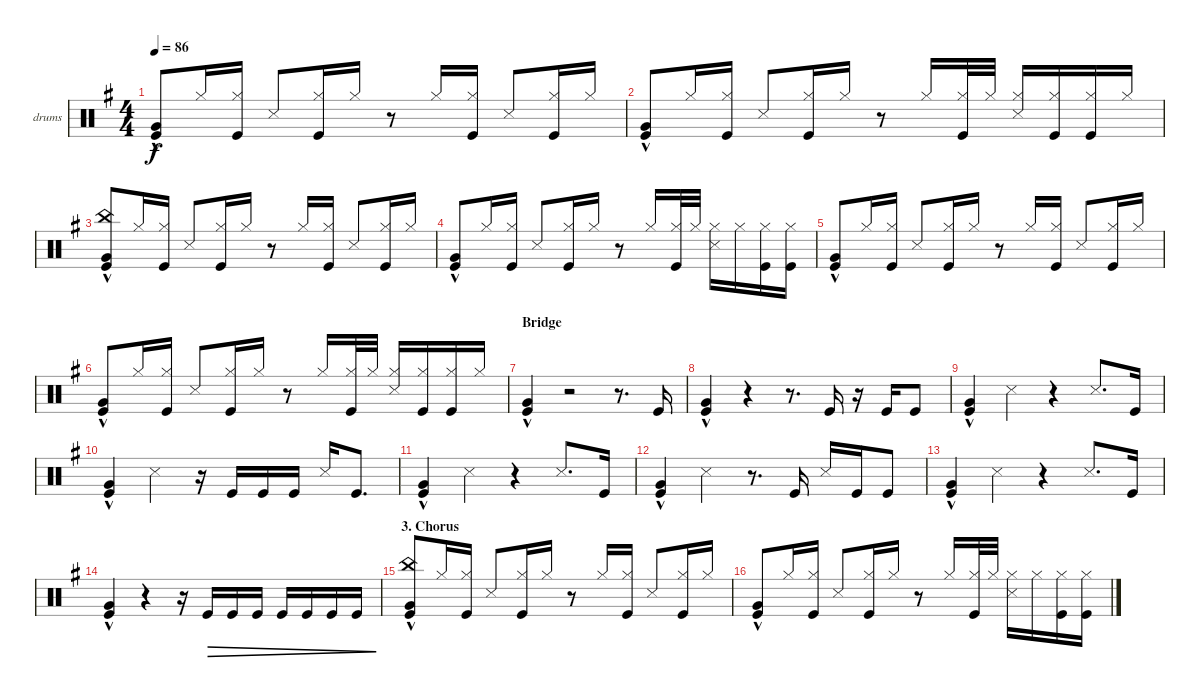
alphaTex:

\defaultSystemsLayout 4
\bracketExtendMode groupsimilarinstruments
\firstSystemTrackNameOrientation horizontal
\otherSystemsTrackNameOrientation horizontal
\track ("drums" "drums") {instrument percussion}
\staff {score}
\articulation defaults
\ts (4 4)
\tempo 86
\clef neutral
\ks g
("Kick (hit)" "Very Low Tom (hit)"{hac}).8{dy f} "Hi-Hat (closed)".16 ("Kick (hit)" "Hi-Hat (closed)").16 "Snare (side stick) 3".8{beam invert} ("Kick (hit)" "Hi-Hat (closed)").16 "Hi-Hat (closed)".16 r.8{beam invert} "Hi-Hat (closed)".16 ("Kick (hit)" "Hi-Hat (closed)").16 "Snare (side stick) 3".8{beam invert} ("Kick (hit)" "Hi-Hat (closed)").16 "Hi-Hat (closed)".16 |
("Kick (hit)" "Very Low Tom (hit)"{hac}).8 "Hi-Hat (closed)".16 ("Kick (hit)" "Hi-Hat (closed)").16 "Snare (side stick) 3".8{beam invert} ("Kick (hit)" "Hi-Hat (closed)").16 "Hi-Hat (closed)".16 r.8 "Hi-Hat (closed)".16{beam invert} ("Kick (hit)" "Hi-Hat (closed)").32 "Hi-Hat (closed)".32 ("Snare (side stick) 3" "Hi-Hat (closed)").16{beam invert} ("Kick (hit)" "Hi-Hat (closed)").16 ("Kick (hit)" "Hi-Hat (closed)").16 "Hi-Hat (closed)".16 |
("Kick (hit)" "Very Low Tom (hit)"{hac} "China (hit)").8 "Hi-Hat (closed)".16 ("Kick (hit)" "Hi-Hat (closed)").16 "Snare (side stick) 3".8{beam invert} ("Kick (hit)" "Hi-Hat (closed)").16 "Hi-Hat (closed)".16 r.8{beam invert} "Hi-Hat (closed)".16 ("Kick (hit)" "Hi-Hat (closed)").16 "Snare (side stick) 3".8{beam invert} ("Kick (hit)" "Hi-Hat (closed)").16 "Hi-Hat (closed)".16 |
("Kick (hit)" "Very Low Tom (hit)"{hac}).8 "Hi-Hat (closed)".16 ("Kick (hit)" "Hi-Hat (closed)").16 "Snare (side stick) 3".8{beam invert} ("Kick (hit)" "Hi-Hat (closed)").16 "Hi-Hat (closed)".16 r.8 "Hi-Hat (closed)".16{beam invert} ("Kick (hit)" "Hi-Hat (closed)").32 "Hi-Hat (closed)".32 ("Snare (side stick) 3" "Hi-Hat (closed)").16 "Hi-Hat (closed)".16 ("Kick (hit)" "Hi-Hat (closed)").16 ("Kick (hit)" "Hi-Hat (closed)").16 |
("Kick (hit)" "Very Low Tom (hit)"{hac}).8 "Hi-Hat (closed)".16 ("Kick (hit)" "Hi-Hat (closed)").16 "Snare (side stick) 3".8{beam invert} ("Kick (hit)" "Hi-Hat (closed)").16 "Hi-Hat (closed)".16 r.8{beam invert} "Hi-Hat (closed)".16 ("Kick (hit)" "Hi-Hat (closed)").16 "Snare (side stick) 3".8{beam invert} ("Kick (hit)" "Hi-Hat (closed)").16 "Hi-Hat (closed)".16 |
("Kick (hit)" "Very Low Tom (hit)"{hac}).8 "Hi-Hat (closed)".16 ("Kick (hit)" "Hi-Hat (closed)").16 "Snare (side stick) 3".8{beam invert} ("Kick (hit)" "Hi-Hat (closed)").16 "Hi-Hat (closed)".16 r.8 "Hi-Hat (closed)".16{beam invert} ("Kick (hit)" "Hi-Hat (closed)").32 "Hi-Hat (closed)".32 ("Snare (side stick) 3" "Hi-Hat (closed)").16{beam invert} ("Kick (hit)" "Hi-Hat (closed)").16 ("Kick (hit)" "Hi-Hat (closed)").16 "Hi-Hat (closed)".16 |
\section ("" "Bridge")
("Kick (hit)" "Very Low Tom (hit)"{hac}).4 r.2 r.8{d} "Kick (hit)".16 |
("Kick (hit)" "Very Low Tom (hit)"{hac}).4 r.4 r.8{d} "Kick (hit)".16 r.16 "Kick (hit)".16 "Kick (hit)".8 |
("Kick (hit)" "Very Low Tom (hit)"{hac}).4 "Snare (side stick) 3".4 r.4 "Snare (side stick) 3".8{d} "Kick (hit)".16 |
("Kick (hit)" "Very Low Tom (hit)"{hac}).4 "Snare (side stick) 3".4 r.16 "Kick (hit)".16 "Kick (hit)".16 "Kick (hit)".16 "Snare (side stick) 3".16 "Kick (hit)".8{d} |
("Kick (hit)" "Very Low Tom (hit)"{hac}).4 "Snare (side stick) 3".4 r.4 "Snare (side stick) 3".8{d} "Kick (hit)".16 |
("Kick (hit)" "Very Low Tom (hit)"{hac}).4 "Snare (side stick) 3".4 r.8{d} "Kick (hit)".16 "Snare (side stick) 3".16 "Kick (hit)".16 "Kick (hit)".8 |
("Kick (hit)" "Very Low Tom (hit)"{hac}).4 "Snare (side stick) 3".4 r.4 "Snare (side stick) 3".8{d} "Kick (hit)".16 |
("Kick (hit)" "Very Low Tom (hit)"{hac}).4 r.4 r.16 "Kick (hit)".16{dec} "Kick (hit)".16{dec} "Kick (hit)".16{dec} "Kick (hit)".16{dec} "Kick (hit)".16{dec} "Kick (hit)".16{dec} "Kick (hit)".16{dec} |
\section ("" "3. Chorus")
("Kick (hit)" "Very Low Tom (hit)"{hac} "China (hit)").8 "Hi-Hat (closed)".16 ("Kick (hit)" "Hi-Hat (closed)").16 "Snare (side stick) 3".8{beam invert} ("Kick (hit)" "Hi-Hat (closed)").16 "Hi-Hat (closed)".16 r.8 "Hi-Hat (closed)".16 ("Kick (hit)" "Hi-Hat (closed)").16 "Snare (side stick) 3".8{beam invert} ("Kick (hit)" "Hi-Hat (closed)").16 "Hi-Hat (closed)".16 |
("Kick (hit)" "Very Low Tom (hit)"{hac}).8 "Hi-Hat (closed)".16 ("Kick (hit)" "Hi-Hat (closed)").16 "Snare (side stick) 3".8{beam invert} ("Kick (hit)" "Hi-Hat (closed)").16 "Hi-Hat (closed)".16 r.8 "Hi-Hat (closed)".16{beam invert} ("Kick (hit)" "Hi-Hat (closed)").32 "Hi-Hat (closed)".32 ("Snare (side stick) 3" "Hi-Hat (closed)").16 "Hi-Hat (closed)".16 ("Kick (hit)" "Hi-Hat (closed)").16 ("Kick (hit)" "Hi-Hat (closed)").16
